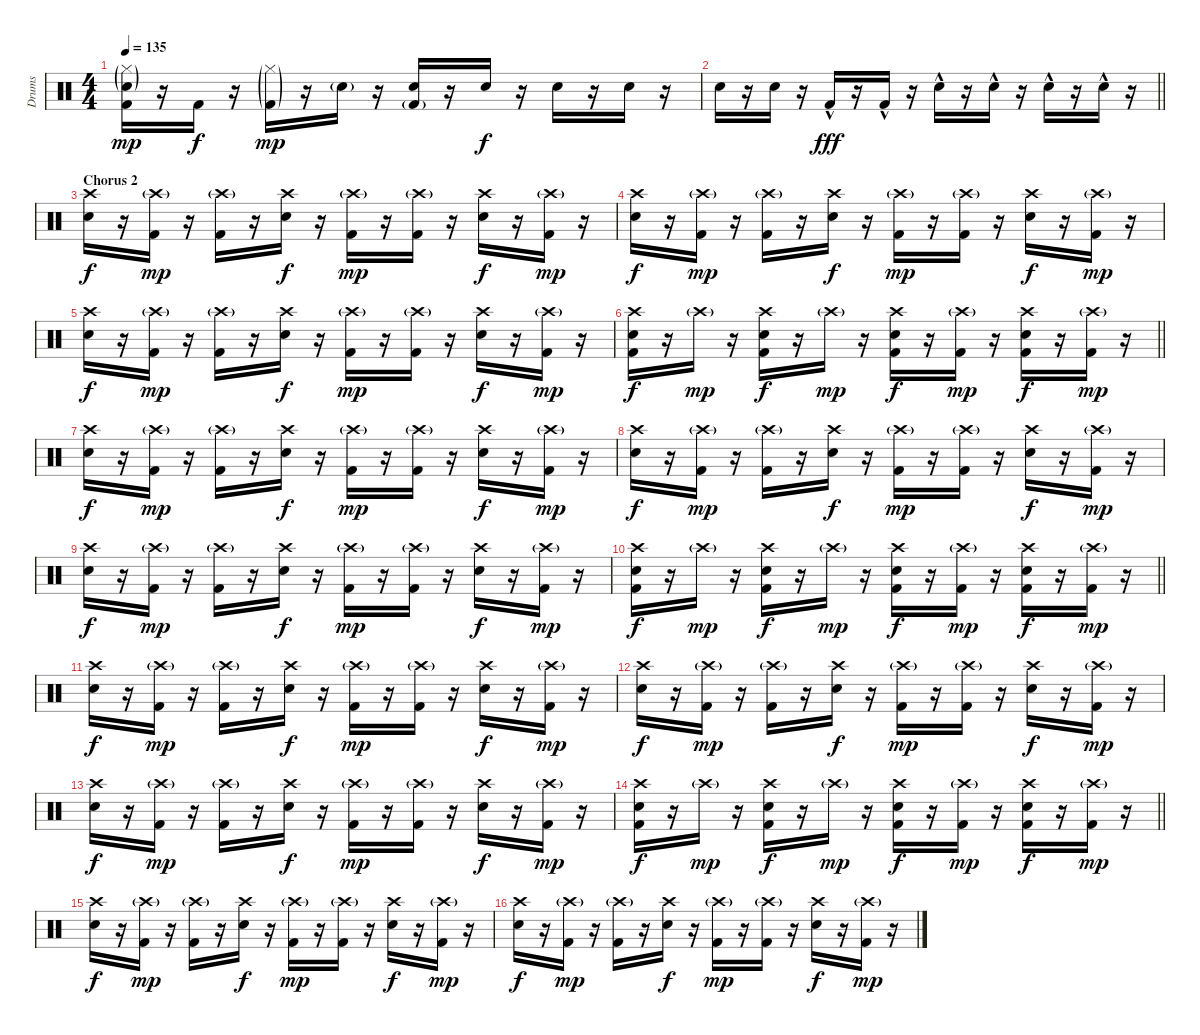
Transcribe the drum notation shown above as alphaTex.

\track ("Drums" "Drums") {instrument percussion}
\staff {score}
\articulation defaults
\ts (4 4)
\tempo 135
\clef neutral
\ks c
("Kick (hit) 2" "Snare (hit) 2"{g} "Hi-Hat (closed)"{g}).16{dy mp} r.16 "Kick (hit) 2".16{dy f} r.16 ("Kick (hit) 2"{g} "Hi-Hat (closed)"{g}).16{dy mp} r.16 "Snare (hit) 2"{g}.16 r.16 ("Kick (hit) 2"{g} "Snare (hit) 2").16{volume 13} r.16 "Snare (hit) 2".16{dy f} r.16 "Snare (hit) 2".16 r.16 "Snare (hit) 2".16 r.16 |
\barLineRight lightlight "Snare (hit) 2".16
r.16 "Snare (hit) 2".16 r.16 "Kick (hit) 2"{hac}.16{dy fff} r.16 "Kick (hit) 2"{hac}.16 r.16 "Snare (hit) 2"{hac}.16 r.16 "Snare (hit) 2"{hac}.16 r.16 "Snare (hit) 2"{hac}.16 r.16 "Snare (hit) 2"{hac}.16 r.16 |
\section ("" "Chorus 2")
("Snare (hit) 2" "Crash high (hit)").16{dy f volume 13} r.16 ("Kick (hit) 2" "Crash high (hit)"{g}).16{dy mp} r.16 ("Kick (hit) 2" "Crash high (hit)"{g}).16 r.16 ("Snare (hit) 2" "Crash high (hit)").16{dy f} r.16 ("Kick (hit) 2" "Crash high (hit)"{g}).16{dy mp} r.16 ("Kick (hit) 2" "Crash high (hit)"{g}).16 r.16 ("Snare (hit) 2" "Crash high (hit)").16{dy f} r.16 ("Kick (hit) 2" "Crash high (hit)"{g}).16{dy mp} r.16 |
("Snare (hit) 2" "Crash high (hit)").16{dy f} r.16 ("Kick (hit) 2" "Crash high (hit)"{g}).16{dy mp} r.16 ("Kick (hit) 2" "Crash high (hit)"{g}).16 r.16 ("Snare (hit) 2" "Crash high (hit)").16{dy f} r.16 ("Kick (hit) 2" "Crash high (hit)"{g}).16{dy mp} r.16 ("Kick (hit) 2" "Crash high (hit)"{g}).16 r.16 ("Snare (hit) 2" "Crash high (hit)").16{dy f} r.16 ("Kick (hit) 2" "Crash high (hit)"{g}).16{dy mp} r.16 |
("Snare (hit) 2" "Crash high (hit)").16{dy f} r.16 ("Kick (hit) 2" "Crash high (hit)"{g}).16{dy mp} r.16 ("Kick (hit) 2" "Crash high (hit)"{g}).16 r.16 ("Snare (hit) 2" "Crash high (hit)").16{dy f} r.16 ("Kick (hit) 2" "Crash high (hit)"{g}).16{dy mp} r.16 ("Kick (hit) 2" "Crash high (hit)"{g}).16 r.16 ("Snare (hit) 2" "Crash high (hit)").16{dy f} r.16 ("Kick (hit) 2" "Crash high (hit)"{g}).16{dy mp} r.16 |
\barLineRight lightlight
("Kick (hit) 2" "Snare (hit) 2" "Crash high (hit)").16{dy f} r.16 "Crash high (hit)"{g}.16{dy mp} r.16 ("Kick (hit) 2" "Snare (hit) 2" "Crash high (hit)").16{dy f} r.16 "Crash high (hit)"{g}.16{dy mp} r.16 ("Kick (hit) 2" "Snare (hit) 2" "Crash high (hit)").16{dy f} r.16 ("Kick (hit) 2" "Crash high (hit)"{g}).16{dy mp} r.16 ("Kick (hit) 2" "Snare (hit) 2" "Crash high (hit)").16{dy f} r.16 ("Kick (hit) 2" "Crash high (hit)"{g}).16{dy mp} r.16 |
("Snare (hit) 2" "Crash high (hit)").16{dy f} r.16 ("Kick (hit) 2" "Crash high (hit)"{g}).16{dy mp} r.16 ("Kick (hit) 2" "Crash high (hit)"{g}).16 r.16 ("Snare (hit) 2" "Crash high (hit)").16{dy f} r.16 ("Kick (hit) 2" "Crash high (hit)"{g}).16{dy mp} r.16 ("Kick (hit) 2" "Crash high (hit)"{g}).16 r.16 ("Snare (hit) 2" "Crash high (hit)").16{dy f} r.16 ("Kick (hit) 2" "Crash high (hit)"{g}).16{dy mp} r.16 |
("Snare (hit) 2" "Crash high (hit)").16{dy f} r.16 ("Kick (hit) 2" "Crash high (hit)"{g}).16{dy mp} r.16 ("Kick (hit) 2" "Crash high (hit)"{g}).16 r.16 ("Snare (hit) 2" "Crash high (hit)").16{dy f} r.16 ("Kick (hit) 2" "Crash high (hit)"{g}).16{dy mp} r.16 ("Kick (hit) 2" "Crash high (hit)"{g}).16 r.16 ("Snare (hit) 2" "Crash high (hit)").16{dy f} r.16 ("Kick (hit) 2" "Crash high (hit)"{g}).16{dy mp} r.16 |
("Snare (hit) 2" "Crash high (hit)").16{dy f} r.16 ("Kick (hit) 2" "Crash high (hit)"{g}).16{dy mp} r.16 ("Kick (hit) 2" "Crash high (hit)"{g}).16 r.16 ("Snare (hit) 2" "Crash high (hit)").16{dy f} r.16 ("Kick (hit) 2" "Crash high (hit)"{g}).16{dy mp} r.16 ("Kick (hit) 2" "Crash high (hit)"{g}).16 r.16 ("Snare (hit) 2" "Crash high (hit)").16{dy f} r.16 ("Kick (hit) 2" "Crash high (hit)"{g}).16{dy mp} r.16 |
\barLineRight lightlight
("Kick (hit) 2" "Snare (hit) 2" "Crash high (hit)").16{dy f} r.16 "Crash high (hit)"{g}.16{dy mp} r.16 ("Kick (hit) 2" "Snare (hit) 2" "Crash high (hit)").16{dy f} r.16 "Crash high (hit)"{g}.16{dy mp} r.16 ("Kick (hit) 2" "Snare (hit) 2" "Crash high (hit)").16{dy f} r.16 ("Kick (hit) 2" "Crash high (hit)"{g}).16{dy mp} r.16 ("Kick (hit) 2" "Snare (hit) 2" "Crash high (hit)").16{dy f} r.16 ("Kick (hit) 2" "Crash high (hit)"{g}).16{dy mp} r.16 |
("Snare (hit) 2" "Crash high (hit)").16{dy f} r.16 ("Kick (hit) 2" "Crash high (hit)"{g}).16{dy mp} r.16 ("Kick (hit) 2" "Crash high (hit)"{g}).16 r.16 ("Snare (hit) 2" "Crash high (hit)").16{dy f} r.16 ("Kick (hit) 2" "Crash high (hit)"{g}).16{dy mp} r.16 ("Kick (hit) 2" "Crash high (hit)"{g}).16 r.16 ("Snare (hit) 2" "Crash high (hit)").16{dy f} r.16 ("Kick (hit) 2" "Crash high (hit)"{g}).16{dy mp} r.16 |
("Snare (hit) 2" "Crash high (hit)").16{dy f} r.16 ("Kick (hit) 2" "Crash high (hit)"{g}).16{dy mp} r.16 ("Kick (hit) 2" "Crash high (hit)"{g}).16 r.16 ("Snare (hit) 2" "Crash high (hit)").16{dy f} r.16 ("Kick (hit) 2" "Crash high (hit)"{g}).16{dy mp} r.16 ("Kick (hit) 2" "Crash high (hit)"{g}).16 r.16 ("Snare (hit) 2" "Crash high (hit)").16{dy f} r.16 ("Kick (hit) 2" "Crash high (hit)"{g}).16{dy mp} r.16 |
("Snare (hit) 2" "Crash high (hit)").16{dy f} r.16 ("Kick (hit) 2" "Crash high (hit)"{g}).16{dy mp} r.16 ("Kick (hit) 2" "Crash high (hit)"{g}).16 r.16 ("Snare (hit) 2" "Crash high (hit)").16{dy f} r.16 ("Kick (hit) 2" "Crash high (hit)"{g}).16{dy mp} r.16 ("Kick (hit) 2" "Crash high (hit)"{g}).16 r.16 ("Snare (hit) 2" "Crash high (hit)").16{dy f} r.16 ("Kick (hit) 2" "Crash high (hit)"{g}).16{dy mp} r.16 |
\barLineRight lightlight
("Kick (hit) 2" "Snare (hit) 2" "Crash high (hit)").16{dy f} r.16 "Crash high (hit)"{g}.16{dy mp} r.16 ("Kick (hit) 2" "Snare (hit) 2" "Crash high (hit)").16{dy f} r.16 "Crash high (hit)"{g}.16{dy mp} r.16 ("Kick (hit) 2" "Snare (hit) 2" "Crash high (hit)").16{dy f} r.16 ("Kick (hit) 2" "Crash high (hit)"{g}).16{dy mp} r.16 ("Kick (hit) 2" "Snare (hit) 2" "Crash high (hit)").16{dy f} r.16 ("Kick (hit) 2" "Crash high (hit)"{g}).16{dy mp} r.16 |
("Snare (hit) 2" "Crash high (hit)").16{dy f} r.16 ("Kick (hit) 2" "Crash high (hit)"{g}).16{dy mp} r.16 ("Kick (hit) 2" "Crash high (hit)"{g}).16 r.16 ("Snare (hit) 2" "Crash high (hit)").16{dy f} r.16 ("Kick (hit) 2" "Crash high (hit)"{g}).16{dy mp} r.16 ("Kick (hit) 2" "Crash high (hit)"{g}).16 r.16 ("Snare (hit) 2" "Crash high (hit)").16{dy f} r.16 ("Kick (hit) 2" "Crash high (hit)"{g}).16{dy mp} r.16 |
("Snare (hit) 2" "Crash high (hit)").16{dy f} r.16 ("Kick (hit) 2" "Crash high (hit)"{g}).16{dy mp} r.16 ("Kick (hit) 2" "Crash high (hit)"{g}).16 r.16 ("Snare (hit) 2" "Crash high (hit)").16{dy f} r.16 ("Kick (hit) 2" "Crash high (hit)"{g}).16{dy mp} r.16 ("Kick (hit) 2" "Crash high (hit)"{g}).16 r.16 ("Snare (hit) 2" "Crash high (hit)").16{dy f} r.16 ("Kick (hit) 2" "Crash high (hit)"{g}).16{dy mp} r.16
